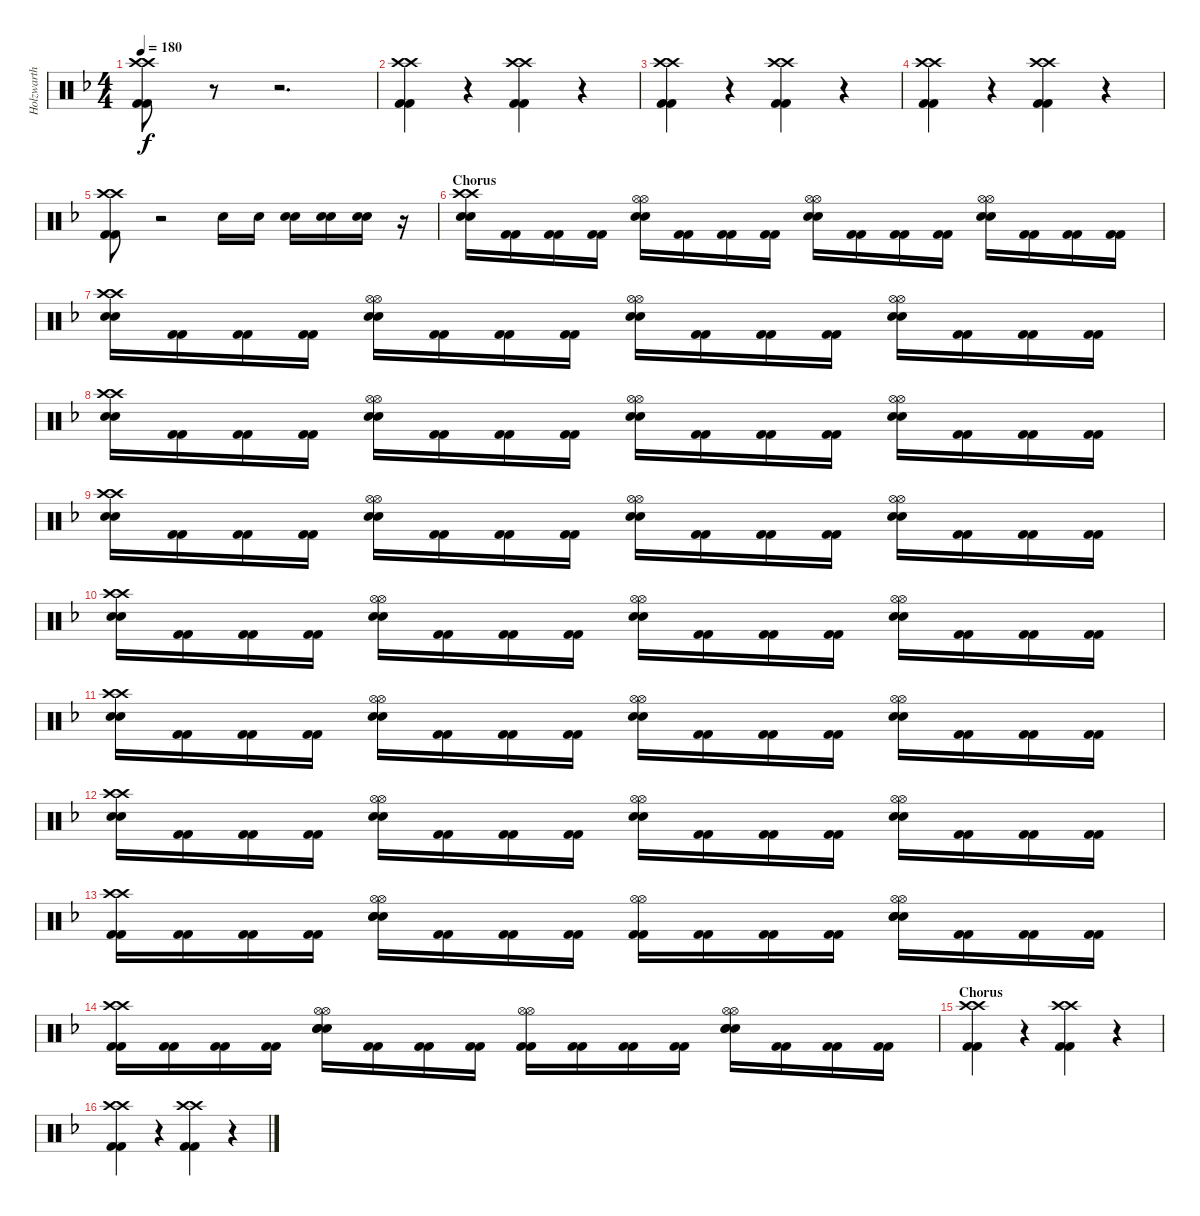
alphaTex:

\track ("Holzwarth" "Holzwarth") {instrument percussion}
\staff {score}
\articulation defaults
\ts (4 4)
\tempo 180
\clef neutral
\ks dminor
("Kick (hit) 2" "Kick (hit) 2" "Crash high (hit)" "Crash high (hit)").8{dy f} r.8 r.2{d} |
("Kick (hit) 2" "Kick (hit) 2" "Crash high (hit)" "Crash high (hit)").4 r.4 ("Kick (hit) 2" "Kick (hit) 2" "Crash high (hit)" "Crash high (hit)").4 r.4 |
("Kick (hit) 2" "Kick (hit) 2" "Crash high (hit)" "Crash high (hit)").4 r.4 ("Kick (hit) 2" "Kick (hit) 2" "Crash high (hit)" "Crash high (hit)").4 r.4 |
("Kick (hit) 2" "Kick (hit) 2" "Crash high (hit)" "Crash high (hit)").4 r.4 ("Kick (hit) 2" "Kick (hit) 2" "Crash high (hit)" "Crash high (hit)").4 r.4 |
("Kick (hit) 2" "Kick (hit) 2" "Crash high (hit)" "Crash high (hit)").8 r.2 "Snare (hit) 2".16 "Snare (hit) 2".16 ("Snare (hit) 2" "Snare (hit) 2").16 ("Snare (hit) 2" "Snare (hit) 2").16 ("Snare (hit) 2" "Snare (hit) 2").16 r.16 |
\section ("" "Chorus")
("Snare (hit) 2" "Snare (hit) 2" "Crash high (hit)" "Crash high (hit)").16 ("Kick (hit) 2" "Kick (hit) 2").16 ("Kick (hit) 2" "Kick (hit) 2").16 ("Kick (hit) 2" "Kick (hit) 2").16 ("Snare (hit) 2" "Snare (hit) 2" "Hi-Hat (open)" "Hi-Hat (open)").16 ("Kick (hit) 2" "Kick (hit) 2").16 ("Kick (hit) 2" "Kick (hit) 2").16 ("Kick (hit) 2" "Kick (hit) 2").16 ("Snare (hit) 2" "Snare (hit) 2" "Hi-Hat (open)" "Hi-Hat (open)").16 ("Kick (hit) 2" "Kick (hit) 2").16 ("Kick (hit) 2" "Kick (hit) 2").16 ("Kick (hit) 2" "Kick (hit) 2").16 ("Snare (hit) 2" "Snare (hit) 2" "Hi-Hat (open)" "Hi-Hat (open)").16 ("Kick (hit) 2" "Kick (hit) 2").16 ("Kick (hit) 2" "Kick (hit) 2").16 ("Kick (hit) 2" "Kick (hit) 2").16 |
("Snare (hit) 2" "Snare (hit) 2" "Crash high (hit)" "Crash high (hit)").16 ("Kick (hit) 2" "Kick (hit) 2").16 ("Kick (hit) 2" "Kick (hit) 2").16 ("Kick (hit) 2" "Kick (hit) 2").16 ("Snare (hit) 2" "Snare (hit) 2" "Hi-Hat (open)" "Hi-Hat (open)").16 ("Kick (hit) 2" "Kick (hit) 2").16 ("Kick (hit) 2" "Kick (hit) 2").16 ("Kick (hit) 2" "Kick (hit) 2").16 ("Snare (hit) 2" "Snare (hit) 2" "Hi-Hat (open)" "Hi-Hat (open)").16 ("Kick (hit) 2" "Kick (hit) 2").16 ("Kick (hit) 2" "Kick (hit) 2").16 ("Kick (hit) 2" "Kick (hit) 2").16 ("Snare (hit) 2" "Snare (hit) 2" "Hi-Hat (open)" "Hi-Hat (open)").16 ("Kick (hit) 2" "Kick (hit) 2").16 ("Kick (hit) 2" "Kick (hit) 2").16 ("Kick (hit) 2" "Kick (hit) 2").16 |
("Snare (hit) 2" "Snare (hit) 2" "Crash high (hit)" "Crash high (hit)").16 ("Kick (hit) 2" "Kick (hit) 2").16 ("Kick (hit) 2" "Kick (hit) 2").16 ("Kick (hit) 2" "Kick (hit) 2").16 ("Snare (hit) 2" "Snare (hit) 2" "Hi-Hat (open)" "Hi-Hat (open)").16 ("Kick (hit) 2" "Kick (hit) 2").16 ("Kick (hit) 2" "Kick (hit) 2").16 ("Kick (hit) 2" "Kick (hit) 2").16 ("Snare (hit) 2" "Snare (hit) 2" "Hi-Hat (open)" "Hi-Hat (open)").16 ("Kick (hit) 2" "Kick (hit) 2").16 ("Kick (hit) 2" "Kick (hit) 2").16 ("Kick (hit) 2" "Kick (hit) 2").16 ("Snare (hit) 2" "Snare (hit) 2" "Hi-Hat (open)" "Hi-Hat (open)").16 ("Kick (hit) 2" "Kick (hit) 2").16 ("Kick (hit) 2" "Kick (hit) 2").16 ("Kick (hit) 2" "Kick (hit) 2").16 |
("Snare (hit) 2" "Snare (hit) 2" "Crash high (hit)" "Crash high (hit)").16 ("Kick (hit) 2" "Kick (hit) 2").16 ("Kick (hit) 2" "Kick (hit) 2").16 ("Kick (hit) 2" "Kick (hit) 2").16 ("Snare (hit) 2" "Snare (hit) 2" "Hi-Hat (open)" "Hi-Hat (open)").16 ("Kick (hit) 2" "Kick (hit) 2").16 ("Kick (hit) 2" "Kick (hit) 2").16 ("Kick (hit) 2" "Kick (hit) 2").16 ("Snare (hit) 2" "Snare (hit) 2" "Hi-Hat (open)" "Hi-Hat (open)").16 ("Kick (hit) 2" "Kick (hit) 2").16 ("Kick (hit) 2" "Kick (hit) 2").16 ("Kick (hit) 2" "Kick (hit) 2").16 ("Snare (hit) 2" "Snare (hit) 2" "Hi-Hat (open)" "Hi-Hat (open)").16 ("Kick (hit) 2" "Kick (hit) 2").16 ("Kick (hit) 2" "Kick (hit) 2").16 ("Kick (hit) 2" "Kick (hit) 2").16 |
("Snare (hit) 2" "Snare (hit) 2" "Crash high (hit)" "Crash high (hit)").16 ("Kick (hit) 2" "Kick (hit) 2").16 ("Kick (hit) 2" "Kick (hit) 2").16 ("Kick (hit) 2" "Kick (hit) 2").16 ("Snare (hit) 2" "Snare (hit) 2" "Hi-Hat (open)" "Hi-Hat (open)").16 ("Kick (hit) 2" "Kick (hit) 2").16 ("Kick (hit) 2" "Kick (hit) 2").16 ("Kick (hit) 2" "Kick (hit) 2").16 ("Snare (hit) 2" "Snare (hit) 2" "Hi-Hat (open)" "Hi-Hat (open)").16 ("Kick (hit) 2" "Kick (hit) 2").16 ("Kick (hit) 2" "Kick (hit) 2").16 ("Kick (hit) 2" "Kick (hit) 2").16 ("Snare (hit) 2" "Snare (hit) 2" "Hi-Hat (open)" "Hi-Hat (open)").16 ("Kick (hit) 2" "Kick (hit) 2").16 ("Kick (hit) 2" "Kick (hit) 2").16 ("Kick (hit) 2" "Kick (hit) 2").16 |
("Snare (hit) 2" "Snare (hit) 2" "Crash high (hit)" "Crash high (hit)").16 ("Kick (hit) 2" "Kick (hit) 2").16 ("Kick (hit) 2" "Kick (hit) 2").16 ("Kick (hit) 2" "Kick (hit) 2").16 ("Snare (hit) 2" "Snare (hit) 2" "Hi-Hat (open)" "Hi-Hat (open)").16 ("Kick (hit) 2" "Kick (hit) 2").16 ("Kick (hit) 2" "Kick (hit) 2").16 ("Kick (hit) 2" "Kick (hit) 2").16 ("Snare (hit) 2" "Snare (hit) 2" "Hi-Hat (open)" "Hi-Hat (open)").16 ("Kick (hit) 2" "Kick (hit) 2").16 ("Kick (hit) 2" "Kick (hit) 2").16 ("Kick (hit) 2" "Kick (hit) 2").16 ("Snare (hit) 2" "Snare (hit) 2" "Hi-Hat (open)" "Hi-Hat (open)").16 ("Kick (hit) 2" "Kick (hit) 2").16 ("Kick (hit) 2" "Kick (hit) 2").16 ("Kick (hit) 2" "Kick (hit) 2").16 |
("Snare (hit) 2" "Snare (hit) 2" "Crash high (hit)" "Crash high (hit)").16 ("Kick (hit) 2" "Kick (hit) 2").16 ("Kick (hit) 2" "Kick (hit) 2").16 ("Kick (hit) 2" "Kick (hit) 2").16 ("Snare (hit) 2" "Snare (hit) 2" "Hi-Hat (open)" "Hi-Hat (open)").16 ("Kick (hit) 2" "Kick (hit) 2").16 ("Kick (hit) 2" "Kick (hit) 2").16 ("Kick (hit) 2" "Kick (hit) 2").16 ("Snare (hit) 2" "Snare (hit) 2" "Hi-Hat (open)" "Hi-Hat (open)").16 ("Kick (hit) 2" "Kick (hit) 2").16 ("Kick (hit) 2" "Kick (hit) 2").16 ("Kick (hit) 2" "Kick (hit) 2").16 ("Snare (hit) 2" "Snare (hit) 2" "Hi-Hat (open)" "Hi-Hat (open)").16 ("Kick (hit) 2" "Kick (hit) 2").16 ("Kick (hit) 2" "Kick (hit) 2").16 ("Kick (hit) 2" "Kick (hit) 2").16 |
("Kick (hit) 2" "Kick (hit) 2" "Crash high (hit)" "Crash high (hit)").16 ("Kick (hit) 2" "Kick (hit) 2").16 ("Kick (hit) 2" "Kick (hit) 2").16 ("Kick (hit) 2" "Kick (hit) 2").16 ("Snare (hit) 2" "Snare (hit) 2" "Snare (hit) 2" "Hi-Hat (open)" "Hi-Hat (open)").16 ("Kick (hit) 2" "Kick (hit) 2").16 ("Kick (hit) 2" "Kick (hit) 2").16 ("Kick (hit) 2" "Kick (hit) 2").16 ("Kick (hit) 2" "Kick (hit) 2" "Hi-Hat (open)" "Hi-Hat (open)").16 ("Kick (hit) 2" "Kick (hit) 2").16 ("Kick (hit) 2" "Kick (hit) 2").16 ("Kick (hit) 2" "Kick (hit) 2").16 ("Snare (hit) 2" "Snare (hit) 2" "Snare (hit) 2" "Hi-Hat (open)" "Hi-Hat (open)").16 ("Kick (hit) 2" "Kick (hit) 2").16 ("Kick (hit) 2" "Kick (hit) 2").16 ("Kick (hit) 2" "Kick (hit) 2").16 |
("Kick (hit) 2" "Kick (hit) 2" "Crash high (hit)" "Crash high (hit)").16 ("Kick (hit) 2" "Kick (hit) 2").16 ("Kick (hit) 2" "Kick (hit) 2").16 ("Kick (hit) 2" "Kick (hit) 2").16 ("Snare (hit) 2" "Snare (hit) 2" "Snare (hit) 2" "Hi-Hat (open)" "Hi-Hat (open)").16 ("Kick (hit) 2" "Kick (hit) 2").16 ("Kick (hit) 2" "Kick (hit) 2").16 ("Kick (hit) 2" "Kick (hit) 2").16 ("Kick (hit) 2" "Kick (hit) 2" "Hi-Hat (open)" "Hi-Hat (open)").16 ("Kick (hit) 2" "Kick (hit) 2").16 ("Kick (hit) 2" "Kick (hit) 2").16 ("Kick (hit) 2" "Kick (hit) 2").16 ("Snare (hit) 2" "Snare (hit) 2" "Snare (hit) 2" "Hi-Hat (open)" "Hi-Hat (open)").16 ("Kick (hit) 2" "Kick (hit) 2").16 ("Kick (hit) 2" "Kick (hit) 2").16 ("Kick (hit) 2" "Kick (hit) 2").16 |
\section ("" "Chorus")
("Kick (hit) 2" "Kick (hit) 2" "Crash high (hit)" "Crash high (hit)").4 r.4 ("Kick (hit) 2" "Kick (hit) 2" "Crash high (hit)" "Crash high (hit)").4 r.4 |
("Kick (hit) 2" "Kick (hit) 2" "Crash high (hit)" "Crash high (hit)").4 r.4 ("Kick (hit) 2" "Kick (hit) 2" "Crash high (hit)" "Crash high (hit)").4 r.4
